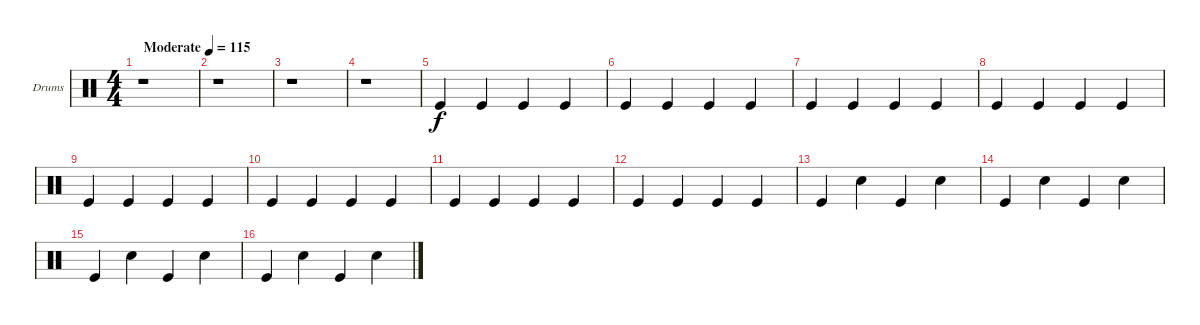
\bracketExtendMode groupsimilarinstruments
\firstSystemTrackNameOrientation horizontal
\otherSystemsTrackNameOrientation horizontal
\track ("Drumkit" "Drums") {instrument percussion}
\staff {score}
\articulation defaults
\ts (4 4)
\beaming (8 2 2 2 2)
\tempo (115 "Moderate")
\clef neutral
\scale
0.262911
\ks c
r.1{dy f} |
\scale
0.262911 r.1 |
\scale
0.333333 r.1 |
\scale
0.333333 r.1 |
\scale
0.333333 "Kick (hit)".4 "Kick (hit)".4 "Kick (hit)".4 "Kick (hit)".4 |
\scale
0.333333 "Kick (hit)".4 "Kick (hit)".4 "Kick (hit)".4 "Kick (hit)".4 |
\scale
0.333333 "Kick (hit)".4 "Kick (hit)".4 "Kick (hit)".4 "Kick (hit)".4 |
\scale
0.333333 "Kick (hit)".4 "Kick (hit)".4 "Kick (hit)".4 "Kick (hit)".4 |
\scale
0.333333 "Kick (hit)".4 "Kick (hit)".4 "Kick (hit)".4 "Kick (hit)".4 |
\scale
0.333333 "Kick (hit)".4 "Kick (hit)".4 "Kick (hit)".4 "Kick (hit)".4 |
\scale
0.333333 "Kick (hit)".4 "Kick (hit)".4 "Kick (hit)".4 "Kick (hit)".4 |
\scale
0.333333 "Kick (hit)".4 "Kick (hit)".4 "Kick (hit)".4 "Kick (hit)".4 |
\scale
0.333333 "Kick (hit)".4 "Snare (hit) 2".4 "Kick (hit)".4 "Snare (hit) 2".4 |
\scale
0.333333 "Kick (hit)".4 "Snare (hit) 2".4 "Kick (hit)".4 "Snare (hit) 2".4 |
\scale
0.333333 "Kick (hit)".4 "Snare (hit) 2".4 "Kick (hit)".4 "Snare (hit) 2".4 |
\scale
0.333333 "Kick (hit)".4 "Snare (hit) 2".4 "Kick (hit)".4 "Snare (hit) 2".4
